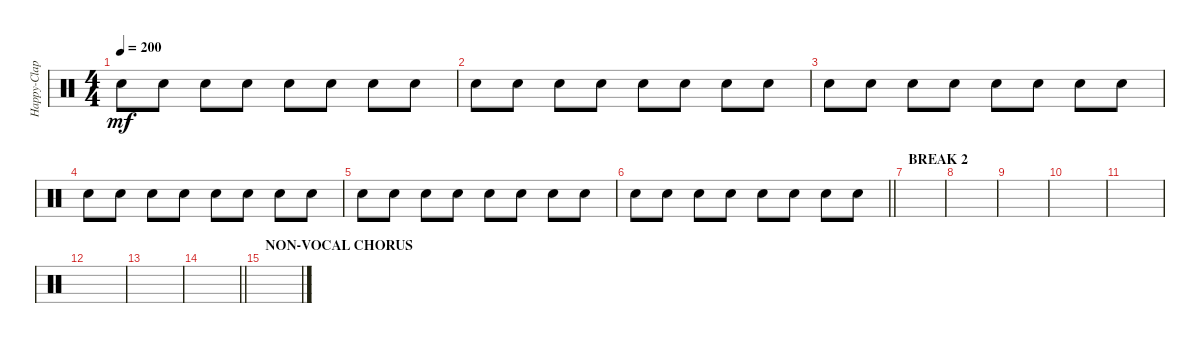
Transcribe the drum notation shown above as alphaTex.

\track ("Happy-Clappy" "Happy-Clap") {instrument percussion}
\staff {score}
\articulation defaults
\ts (4 4)
\tempo 200
\clef neutral
\ks c "Hand Clap (hit)".8{dy mf} "Hand Clap (hit)".8 "Hand Clap (hit)".8 "Hand Clap (hit)".8 "Hand Clap (hit)".8 "Hand Clap (hit)".8 "Hand Clap (hit)".8 "Hand Clap (hit)".8
|
"Hand Clap (hit)".8 "Hand Clap (hit)".8 "Hand Clap (hit)".8 "Hand Clap (hit)".8 "Hand Clap (hit)".8 "Hand Clap (hit)".8 "Hand Clap (hit)".8 "Hand Clap (hit)".8 |
"Hand Clap (hit)".8 "Hand Clap (hit)".8 "Hand Clap (hit)".8 "Hand Clap (hit)".8 "Hand Clap (hit)".8 "Hand Clap (hit)".8 "Hand Clap (hit)".8 "Hand Clap (hit)".8 |
"Hand Clap (hit)".8 "Hand Clap (hit)".8 "Hand Clap (hit)".8 "Hand Clap (hit)".8 "Hand Clap (hit)".8 "Hand Clap (hit)".8 "Hand Clap (hit)".8 "Hand Clap (hit)".8 |
"Hand Clap (hit)".8 "Hand Clap (hit)".8 "Hand Clap (hit)".8 "Hand Clap (hit)".8 "Hand Clap (hit)".8 "Hand Clap (hit)".8 "Hand Clap (hit)".8 "Hand Clap (hit)".8 |
\barLineRight lightlight "Hand Clap (hit)".8 "Hand Clap (hit)".8 "Hand Clap (hit)".8 "Hand Clap (hit)".8 "Hand Clap (hit)".8 "Hand Clap (hit)".8 "Hand Clap (hit)".8 "Hand Clap (hit)".8
|
\section ("" "BREAK 2")
|
|
|
|
|
|
|
\barLineRight lightlight
|
\section ("" "NON-VOCAL CHORUS")
